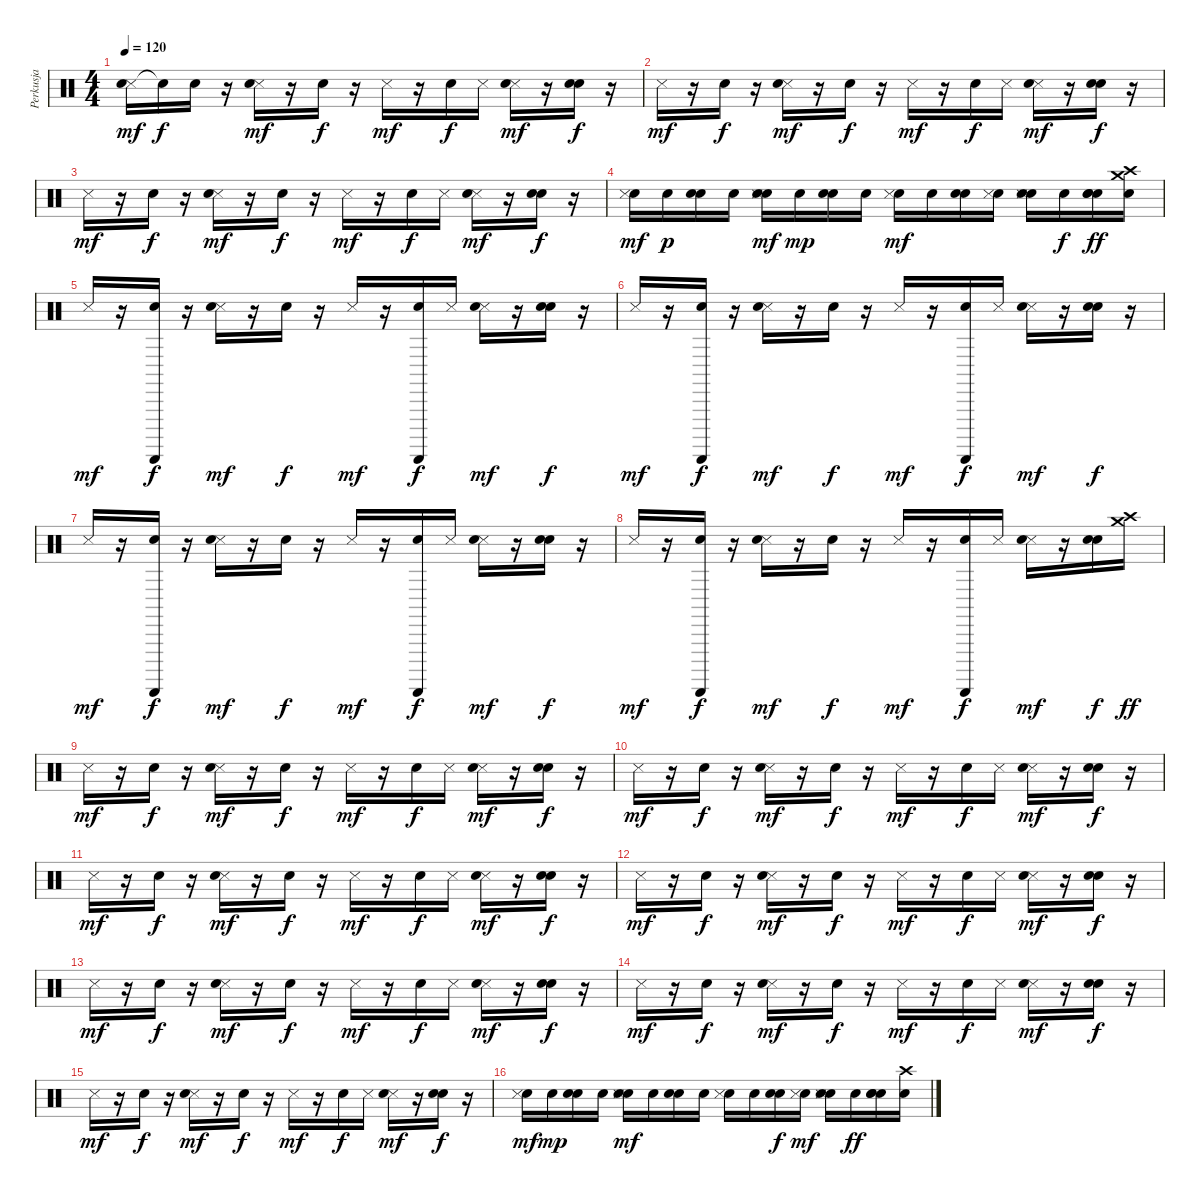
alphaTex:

\track ("Perkusja" "Perkusja") {instrument percussion}
\staff {score}
\articulation defaults
\ts (4 4)
\tempo 120
\clef neutral
\ks c
("Metronome (hit)" "Snare (hit)"{t}).16{dy mf} "Snare (hit)"{t}.16{dy f} "Electric Snare (hit)".16 r.16 ("Snare (side stick) 3" "Metronome (bell)").16{dy mf} r.16 "Snare (hit) 2".16{dy f} r.16 "Metronome (hit)".16{dy mf} r.16 "Electric Snare (hit)".16{dy f} "Snare (side stick) 3".16 ("Snare (side stick) 3" "Metronome (bell)").16{dy mf} r.16 ("Snare (hit) 2" "Metronome (bell)").16{dy f} r.16 |
"Metronome (hit)".16{dy mf} r.16 "Electric Snare (hit)".16{dy f} r.16 ("Snare (side stick) 3" "Metronome (bell)").16{dy mf} r.16 "Snare (hit) 2".16{dy f} r.16 "Metronome (hit)".16{dy mf} r.16 "Electric Snare (hit)".16{dy f} "Snare (side stick) 3".16 ("Snare (side stick) 3" "Metronome (bell)").16{dy mf} r.16 ("Snare (hit) 2" "Metronome (bell)").16{dy f} r.16 |
"Metronome (hit)".16{dy mf} r.16 "Electric Snare (hit)".16{dy f} r.16 ("Snare (side stick) 3" "Metronome (bell)").16{dy mf} r.16 "Snare (hit) 2".16{dy f} r.16 "Metronome (hit)".16{dy mf} r.16 "Electric Snare (hit)".16{dy f} "Snare (side stick) 3".16 ("Snare (side stick) 3" "Metronome (bell)").16{dy mf} r.16 ("Snare (hit) 2" "Metronome (bell)").16{dy f} r.16 |
("Snare (hit) 2" "Metronome (hit)").16{dy mf} "Snare (hit) 2".16{dy p} ("Snare (hit) 2" "Electric Snare (hit)").16 "Snare (hit) 2".16 ("Snare (hit) 2" "Snare (side stick) 3" "Metronome (bell)").16{dy mf} "Snare (hit) 2".16{dy mp} ("Snare (hit) 2" "Snare (hit) 2").16 "Snare (hit) 2".16 ("Snare (hit) 2" "Metronome (hit)").16{dy mf} "Snare (hit) 2".16 ("Snare (hit) 2" "Electric Snare (hit)").16 ("Snare (hit) 2" "Snare (side stick) 3").16 ("Snare (hit) 2" "Snare (side stick) 3" "Metronome (bell)").16 "Snare (hit) 2".16{dy f} ("Snare (hit) 2" "Snare (hit) 2" "Metronome (bell)").16{dy ff} ("Snare (hit) 2" "Crash medium (hit)" "Crash high (hit)").16 |
"Metronome (hit)".16{dy mf} r.16 ("Electric Snare (hit)" "Guiro (scrap-return)").16{dy f} r.16 ("Snare (side stick) 3" "Metronome (bell)").16{dy mf} r.16 "Snare (hit) 2".16{dy f} r.16 "Metronome (hit)".16{dy mf} r.16 ("Electric Snare (hit)" "Guiro (scrap-return)").16{dy f} "Snare (side stick) 3".16 ("Snare (side stick) 3" "Metronome (bell)").16{dy mf} r.16 ("Snare (hit) 2" "Metronome (bell)").16{dy f} r.16 |
"Metronome (hit)".16{dy mf} r.16 ("Electric Snare (hit)" "Guiro (scrap-return)").16{dy f} r.16 ("Snare (side stick) 3" "Metronome (bell)").16{dy mf} r.16 "Snare (hit) 2".16{dy f} r.16 "Metronome (hit)".16{dy mf} r.16 ("Electric Snare (hit)" "Guiro (scrap-return)").16{dy f} "Snare (side stick) 3".16 ("Snare (side stick) 3" "Metronome (bell)").16{dy mf} r.16 ("Snare (hit) 2" "Metronome (bell)").16{dy f} r.16 |
"Metronome (hit)".16{dy mf} r.16 ("Electric Snare (hit)" "Guiro (scrap-return)").16{dy f} r.16 ("Snare (side stick) 3" "Metronome (bell)").16{dy mf} r.16 "Snare (hit) 2".16{dy f} r.16 "Metronome (hit)".16{dy mf} r.16 ("Electric Snare (hit)" "Guiro (scrap-return)").16{dy f} "Snare (side stick) 3".16 ("Snare (side stick) 3" "Metronome (bell)").16{dy mf} r.16 ("Snare (hit) 2" "Metronome (bell)").16{dy f} r.16 |
"Metronome (hit)".16{dy mf} r.16 ("Electric Snare (hit)" "Guiro (scrap-return)").16{dy f} r.16 ("Snare (side stick) 3" "Metronome (bell)").16{dy mf} r.16 "Snare (hit) 2".16{dy f} r.16 "Metronome (hit)".16{dy mf} r.16 ("Electric Snare (hit)" "Guiro (scrap-return)").16{dy f} "Snare (side stick) 3".16 ("Snare (side stick) 3" "Metronome (bell)").16{dy mf} r.16 ("Snare (hit) 2" "Metronome (bell)").16{dy f} ("Crash medium (hit)" "Crash high (hit)").16{dy ff} |
"Metronome (hit)".16{dy mf} r.16 "Electric Snare (hit)".16{dy f} r.16 ("Snare (side stick) 3" "Metronome (bell)").16{dy mf} r.16 "Snare (hit) 2".16{dy f} r.16 "Metronome (hit)".16{dy mf} r.16 "Electric Snare (hit)".16{dy f} "Snare (side stick) 3".16 ("Snare (side stick) 3" "Metronome (bell)").16{dy mf} r.16 ("Snare (hit) 2" "Metronome (bell)").16{dy f} r.16 |
"Metronome (hit)".16{dy mf} r.16 "Electric Snare (hit)".16{dy f} r.16 ("Snare (side stick) 3" "Metronome (bell)").16{dy mf} r.16 "Snare (hit) 2".16{dy f} r.16 "Metronome (hit)".16{dy mf} r.16 "Electric Snare (hit)".16{dy f} "Snare (side stick) 3".16 ("Snare (side stick) 3" "Metronome (bell)").16{dy mf} r.16 ("Snare (hit) 2" "Metronome (bell)").16{dy f} r.16 |
"Metronome (hit)".16{dy mf} r.16 "Electric Snare (hit)".16{dy f} r.16 ("Snare (side stick) 3" "Metronome (bell)").16{dy mf} r.16 "Snare (hit) 2".16{dy f} r.16 "Metronome (hit)".16{dy mf} r.16 "Electric Snare (hit)".16{dy f} "Snare (side stick) 3".16 ("Snare (side stick) 3" "Metronome (bell)").16{dy mf} r.16 ("Snare (hit) 2" "Metronome (bell)").16{dy f} r.16 |
"Metronome (hit)".16{dy mf} r.16 "Electric Snare (hit)".16{dy f} r.16 ("Snare (side stick) 3" "Metronome (bell)").16{dy mf} r.16 "Snare (hit) 2".16{dy f} r.16 "Metronome (hit)".16{dy mf} r.16 "Electric Snare (hit)".16{dy f} "Snare (side stick) 3".16 ("Snare (side stick) 3" "Metronome (bell)").16{dy mf} r.16 ("Snare (hit) 2" "Metronome (bell)").16{dy f} r.16 |
"Metronome (hit)".16{dy mf} r.16 "Electric Snare (hit)".16{dy f} r.16 ("Snare (side stick) 3" "Metronome (bell)").16{dy mf} r.16 "Snare (hit) 2".16{dy f} r.16 "Metronome (hit)".16{dy mf} r.16 "Electric Snare (hit)".16{dy f} "Snare (side stick) 3".16 ("Snare (side stick) 3" "Metronome (bell)").16{dy mf} r.16 ("Snare (hit) 2" "Metronome (bell)").16{dy f} r.16 |
"Metronome (hit)".16{dy mf} r.16 "Electric Snare (hit)".16{dy f} r.16 ("Snare (side stick) 3" "Metronome (bell)").16{dy mf} r.16 "Snare (hit) 2".16{dy f} r.16 "Metronome (hit)".16{dy mf} r.16 "Electric Snare (hit)".16{dy f} "Snare (side stick) 3".16 ("Snare (side stick) 3" "Metronome (bell)").16{dy mf} r.16 ("Snare (hit) 2" "Metronome (bell)").16{dy f} r.16 |
"Metronome (hit)".16{dy mf} r.16 "Electric Snare (hit)".16{dy f} r.16 ("Snare (side stick) 3" "Metronome (bell)").16{dy mf} r.16 "Snare (hit) 2".16{dy f} r.16 "Metronome (hit)".16{dy mf} r.16 "Electric Snare (hit)".16{dy f} "Snare (side stick) 3".16 ("Snare (side stick) 3" "Metronome (bell)").16{dy mf} r.16 ("Snare (hit) 2" "Metronome (bell)").16{dy f} r.16 |
("Snare (hit) 2" "Metronome (hit)").16{dy mf} "Snare (hit) 2".16{dy mp} ("Electric Snare (hit)" "Snare (hit) 2").16 "Snare (hit) 2".16 ("Snare (hit) 2" "Snare (side stick) 3" "Metronome (bell)").16{dy mf} "Snare (hit) 2".16 ("Snare (hit) 2" "Snare (hit) 2").16 "Snare (hit) 2".16 ("Snare (hit) 2" "Metronome (hit)").16 "Snare (hit) 2".16 ("Electric Snare (hit)" "Snare (hit) 2").16{dy f} ("Snare (hit) 2" "Snare (side stick) 3").16{dy mf} ("Snare (hit) 2" "Snare (side stick) 3" "Metronome (bell)").16 "Snare (hit) 2".16{dy ff} ("Snare (hit) 2" "Snare (hit) 2" "Metronome (bell)").16 ("Snare (hit) 2" "Crash high (hit)").16
